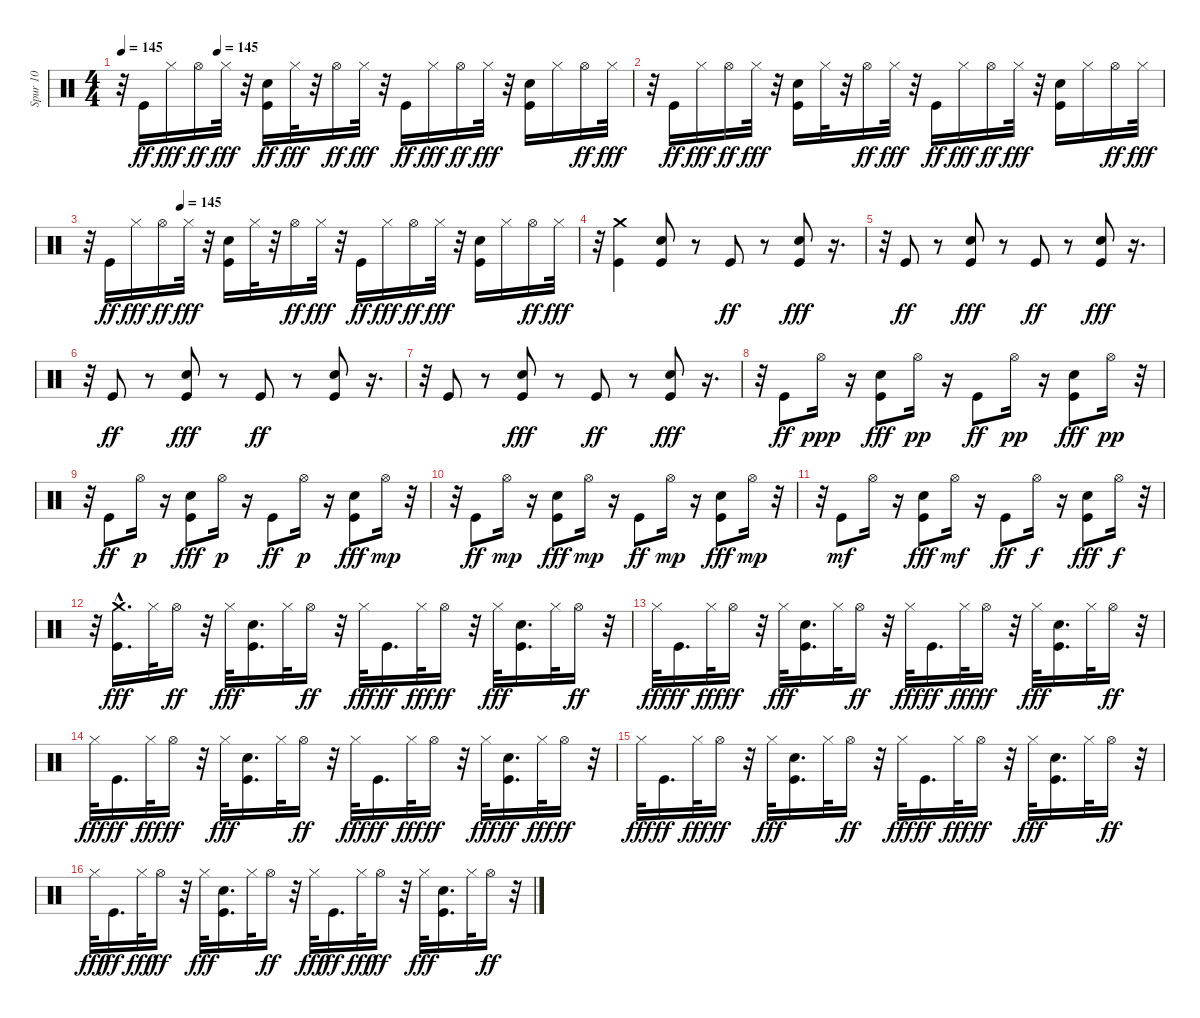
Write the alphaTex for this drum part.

\track ("Spur 10" "Spur 10") {instrument percussion}
\staff {score}
\articulation defaults
\ts (4 4)
\tempo 145
\tempo (145 0.1875)
\clef neutral
\ks c
r.32{dy fff} "Kick (hit)".16{dy ff} "Hi-Hat (closed)".16{dy fff} "Hi-Hat (open)".16{dy ff} "Hi-Hat (closed)".32{dy fff} r.32 ("Hand Clap (hit)" "Kick (hit)").16{dy ff} "Hi-Hat (closed)".32{dy fff} r.32 "Hi-Hat (open)".16{dy ff} "Hi-Hat (closed)".32{dy fff} r.32 "Kick (hit)".16{dy ff} "Hi-Hat (closed)".16{dy fff} "Hi-Hat (open)".16{dy ff} "Hi-Hat (closed)".32{dy fff} r.32 ("Kick (hit)" "Hand Clap (hit)").16 "Hi-Hat (closed)".16 "Hi-Hat (open)".16{dy ff} "Hi-Hat (closed)".32{dy fff} |
r.32 "Kick (hit)".16{dy ff} "Hi-Hat (closed)".16{dy fff} "Hi-Hat (open)".16{dy ff} "Hi-Hat (closed)".32{dy fff} r.32 ("Kick (hit)" "Hand Clap (hit)").16 "Hi-Hat (closed)".32 r.32 "Hi-Hat (open)".16{dy ff} "Hi-Hat (closed)".32{dy fff} r.32 "Kick (hit)".16{dy ff} "Hi-Hat (closed)".16{dy fff} "Hi-Hat (open)".16{dy ff} "Hi-Hat (closed)".32{dy fff} r.32 ("Kick (hit)" "Hand Clap (hit)").16 "Hi-Hat (closed)".16 "Hi-Hat (open)".16{dy ff} "Hi-Hat (closed)".32{dy fff} |
\tempo (145 0.1875)
r.32 "Kick (hit)".16{dy ff} "Hi-Hat (closed)".16{dy fff} "Hi-Hat (open)".16{dy ff} "Hi-Hat (closed)".32{dy fff} r.32 ("Kick (hit)" "Hand Clap (hit)").16 "Hi-Hat (closed)".32 r.32 "Hi-Hat (open)".16{dy ff} "Hi-Hat (closed)".32{dy fff} r.32 "Kick (hit)".16{dy ff} "Hi-Hat (closed)".16{dy fff} "Hi-Hat (open)".16{dy ff} "Hi-Hat (closed)".32{dy fff} r.32 ("Kick (hit)" "Hand Clap (hit)").16 "Hi-Hat (closed)".16 "Hi-Hat (open)".16{dy ff} "Hi-Hat (closed)".32{dy fff} |
r.32 ("Kick (hit)" "Crash medium (hit)").4 ("Kick (hit)" "Hand Clap (hit)").8 r.8 "Kick (hit)".8{dy ff} r.8 ("Kick (hit)" "Hand Clap (hit)").8{dy fff} r.16{d} |
r.32 "Kick (hit)".8{dy ff} r.8 ("Kick (hit)" "Hand Clap (hit)").8{dy fff} r.8 "Kick (hit)".8{dy ff} r.8 ("Kick (hit)" "Hand Clap (hit)").8{dy fff} r.16{d} |
r.32 "Kick (hit)".8{dy ff} r.8 ("Kick (hit)" "Hand Clap (hit)").8{dy fff} r.8 "Kick (hit)".8{dy ff} r.8 ("Hand Clap (hit)" "Kick (hit)").8 r.16{d} |
r.32 "Kick (hit)".8 r.8 ("Kick (hit)" "Hand Clap (hit)").8{dy fff} r.8 "Kick (hit)".8{dy ff} r.8 ("Kick (hit)" "Hand Clap (hit)").8{dy fff} r.16{d} |
r.32 "Kick (hit)".8{dy ff} "Hi-Hat (open)".16{dy ppp} r.16 ("Kick (hit)" "Hand Clap (hit)").8{dy fff} "Hi-Hat (open)".16{dy pp} r.16 "Kick (hit)".8{dy ff} "Hi-Hat (open)".16{dy pp} r.16 ("Kick (hit)" "Hand Clap (hit)").8{dy fff} "Hi-Hat (open)".16{dy pp} r.32 |
r.32 "Kick (hit)".8{dy ff} "Hi-Hat (open)".16{dy p} r.16 ("Kick (hit)" "Hand Clap (hit)").8{dy fff} "Hi-Hat (open)".16{dy p} r.16 "Kick (hit)".8{dy ff} "Hi-Hat (open)".16{dy p} r.16 ("Kick (hit)" "Hand Clap (hit)").8{dy fff} "Hi-Hat (open)".16{dy mp} r.32 |
r.32 "Kick (hit)".8{dy ff} "Hi-Hat (open)".16{dy mp} r.16 ("Kick (hit)" "Hand Clap (hit)").8{dy fff} "Hi-Hat (open)".16{dy mp} r.16 "Kick (hit)".8{dy ff} "Hi-Hat (open)".16{dy mp} r.16 ("Kick (hit)" "Hand Clap (hit)").8{dy fff} "Hi-Hat (open)".16{dy mp} r.32 |
r.32 "Kick (hit)".8{dy mf} "Hi-Hat (open)".16 r.16 ("Kick (hit)" "Hand Clap (hit)").8{dy fff} "Hi-Hat (open)".16{dy mf} r.16 "Kick (hit)".8{dy ff} "Hi-Hat (open)".16{dy f} r.16 ("Kick (hit)" "Hand Clap (hit)").8{dy fff} "Hi-Hat (open)".16{dy f} r.32 |
r.32 ("Kick (hit)" "Crash medium (hit)"{hac}).16{d dy fff} "Hi-Hat (closed)".32 "Hi-Hat (open)".16{dy ff} r.32 "Hi-Hat (closed)".32{dy fff} ("Kick (hit)" "Hand Clap (hit)").16{d} "Hi-Hat (closed)".32 "Hi-Hat (open)".16{dy ff} r.32 "Hi-Hat (closed)".32{dy fff} "Kick (hit)".16{d dy ff} "Hi-Hat (closed)".32{dy fff} "Hi-Hat (open)".16{dy ff} r.32 "Hi-Hat (closed)".32{dy fff} ("Kick (hit)" "Hand Clap (hit)").16{d} "Hi-Hat (closed)".32 "Hi-Hat (open)".16{dy ff} r.32 |
"Hi-Hat (closed)".32{dy fff} "Kick (hit)".16{d dy ff} "Hi-Hat (closed)".32{dy fff} "Hi-Hat (open)".16{dy ff} r.32 "Hi-Hat (closed)".32{dy fff} ("Kick (hit)" "Hand Clap (hit)").16{d} "Hi-Hat (closed)".32 "Hi-Hat (open)".16{dy ff} r.32 "Hi-Hat (closed)".32{dy fff} "Kick (hit)".16{d dy ff} "Hi-Hat (closed)".32{dy fff} "Hi-Hat (open)".16{dy ff} r.32 "Hi-Hat (closed)".32{dy fff} ("Kick (hit)" "Hand Clap (hit)").16{d} "Hi-Hat (closed)".32 "Hi-Hat (open)".16{dy ff} r.32 |
"Hi-Hat (closed)".32{dy fff} "Kick (hit)".16{d dy ff} "Hi-Hat (closed)".32{dy fff} "Hi-Hat (open)".16{dy ff} r.32 "Hi-Hat (closed)".32{dy fff} ("Kick (hit)" "Hand Clap (hit)").16{d} "Hi-Hat (closed)".32 "Hi-Hat (open)".16{dy ff} r.32 "Hi-Hat (closed)".32{dy fff} "Kick (hit)".16{d dy ff} "Hi-Hat (closed)".32{dy fff} "Hi-Hat (open)".16{dy ff} r.32 "Hi-Hat (closed)".32{dy fff} ("Hand Clap (hit)" "Kick (hit)").16{d dy ff} "Hi-Hat (closed)".32{dy fff} "Hi-Hat (open)".16{dy ff} r.32 |
"Hi-Hat (closed)".32{dy fff} "Kick (hit)".16{d dy ff} "Hi-Hat (closed)".32{dy fff} "Hi-Hat (open)".16{dy ff} r.32 "Hi-Hat (closed)".32{dy fff} ("Kick (hit)" "Hand Clap (hit)").16{d} "Hi-Hat (closed)".32 "Hi-Hat (open)".16{dy ff} r.32 "Hi-Hat (closed)".32{dy fff} "Kick (hit)".16{d dy ff} "Hi-Hat (closed)".32{dy fff} "Hi-Hat (open)".16{dy ff} r.32 "Hi-Hat (closed)".32{dy fff} ("Kick (hit)" "Hand Clap (hit)").16{d} "Hi-Hat (closed)".32 "Hi-Hat (open)".16{dy ff} r.32 |
"Hi-Hat (closed)".32{dy fff} "Kick (hit)".16{d dy ff} "Hi-Hat (closed)".32{dy fff} "Hi-Hat (open)".16{dy ff} r.32 "Hi-Hat (closed)".32{dy fff} ("Kick (hit)" "Hand Clap (hit)").16{d} "Hi-Hat (closed)".32 "Hi-Hat (open)".16{dy ff} r.32 "Hi-Hat (closed)".32{dy fff} "Kick (hit)".16{d dy ff} "Hi-Hat (closed)".32{dy fff} "Hi-Hat (open)".16{dy ff} r.32 "Hi-Hat (closed)".32{dy fff} ("Kick (hit)" "Hand Clap (hit)").16{d} "Hi-Hat (closed)".32 "Hi-Hat (open)".16{dy ff} r.32
